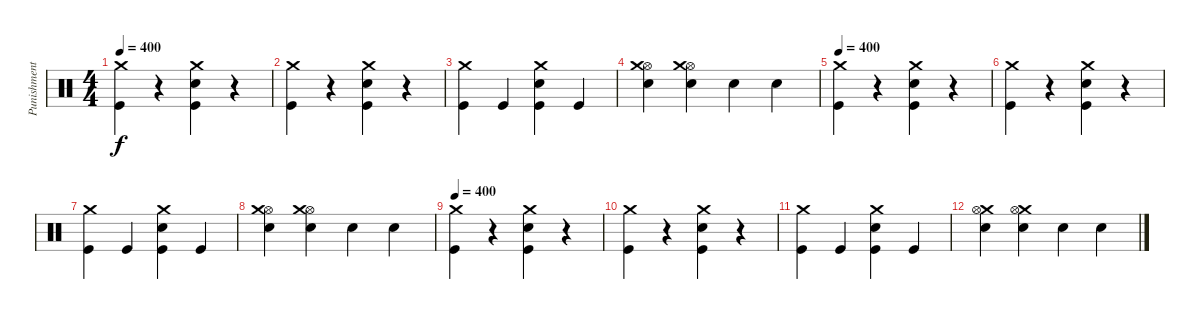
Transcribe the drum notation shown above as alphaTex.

\track ("Punishment" "Punishment") {instrument percussion}
\staff {score}
\articulation defaults
\ts (4 4)
\tempo 400
\clef neutral
\ks c
("Crash medium (hit)" "Kick (hit)").4{dy f} r.4 ("Crash medium (hit)" "Electric Snare (hit)" "Kick (hit)").4 r.4 |
("Crash medium (hit)" "Kick (hit)").4 r.4 ("Crash medium (hit)" "Electric Snare (hit)" "Kick (hit)").4 r.4 |
("Crash medium (hit)" "Kick (hit)").4 "Kick (hit)".4 ("Crash medium (hit)" "Electric Snare (hit)" "Kick (hit)").4 "Kick (hit)".4 |
("Hi-Hat (open)" "Crash medium (hit)" "Electric Snare (hit)").4 ("Hi-Hat (open)" "Crash medium (hit)" "Electric Snare (hit)").4 "Snare (hit)"{x}.4 "Snare (hit)"{x}.4 |
\tempo 400
("Crash medium (hit)" "Kick (hit)").4 r.4 ("Crash medium (hit)" "Electric Snare (hit)" "Kick (hit)").4 r.4 |
("Crash medium (hit)" "Kick (hit)").4 r.4 ("Crash medium (hit)" "Electric Snare (hit)" "Kick (hit)").4 r.4 |
("Crash medium (hit)" "Kick (hit)").4 "Kick (hit)".4 ("Crash medium (hit)" "Electric Snare (hit)" "Kick (hit)").4 "Kick (hit)".4 |
("Hi-Hat (open)" "Crash medium (hit)" "Electric Snare (hit)").4 ("Hi-Hat (open)" "Crash medium (hit)" "Electric Snare (hit)").4 "Snare (hit)"{x}.4 "Snare (hit)"{x}.4 |
\tempo 400
("Crash medium (hit)" "Kick (hit)").4 r.4 ("Crash medium (hit)" "Electric Snare (hit)" "Kick (hit)").4 r.4 |
("Crash medium (hit)" "Kick (hit)").4 r.4 ("Crash medium (hit)" "Electric Snare (hit)" "Kick (hit)").4 r.4 |
("Crash medium (hit)" "Kick (hit)").4 "Kick (hit)".4 ("Crash medium (hit)" "Electric Snare (hit)" "Kick (hit)").4 "Kick (hit)".4 |
("Crash medium (hit)" "Electric Snare (hit)" "Hi-Hat (open)").4 ("Crash medium (hit)" "Electric Snare (hit)" "Hi-Hat (open)").4 "Snare (hit)"{x}.4 "Snare (hit)"{x}.4
